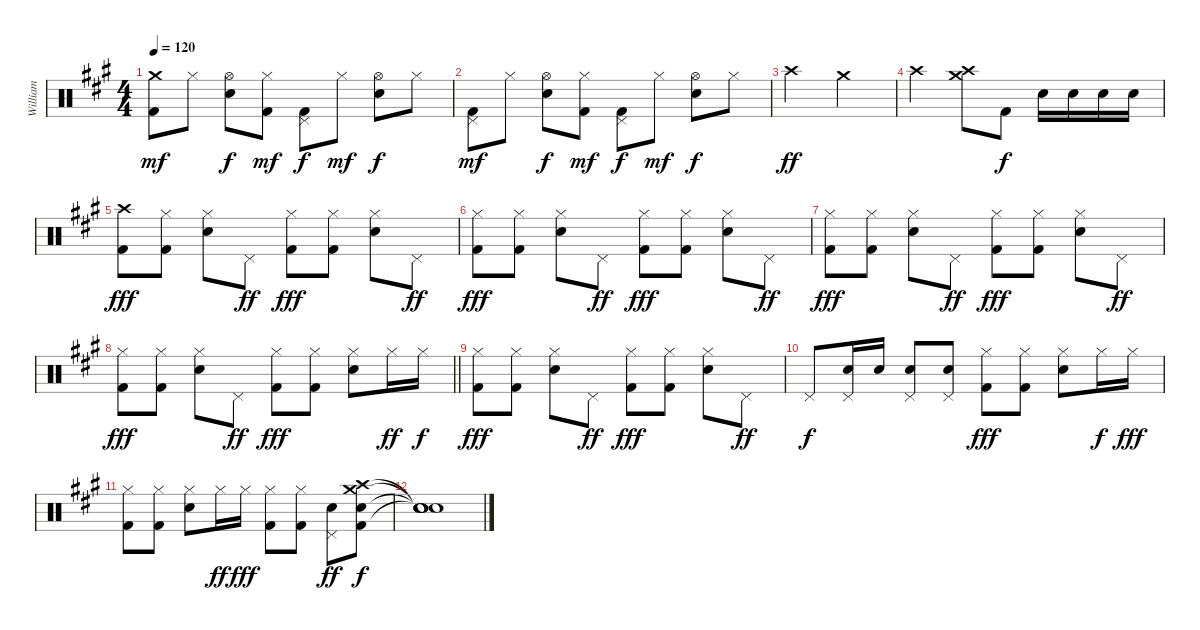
\track ("William" "William") {instrument percussion}
\staff {score}
\articulation defaults
\ts (4 4)
\tempo 120
\clef neutral
\ks a
("Crash medium (hit)" "Kick (hit) 2").8{dy mf} "Hi-Hat (closed)".8 ("Hi-Hat (open)" "Snare (hit) 2").8{dy f} ("Hi-Hat (closed)" "Kick (hit) 2").8{dy mf} ("Pedal Hi-Hat (hit)" "Kick (hit) 2").8{dy f} "Hi-Hat (closed)".8{dy mf} ("Hi-Hat (open)" "Snare (hit) 2").8{dy f} "Hi-Hat (closed)".8 |
("Pedal Hi-Hat (hit)" "Kick (hit) 2").8{dy mf} "Hi-Hat (closed)".8 ("Hi-Hat (open)" "Snare (hit) 2").8{dy f} ("Hi-Hat (closed)" "Kick (hit) 2").8{dy mf} ("Pedal Hi-Hat (hit)" "Kick (hit) 2").8{dy f} "Hi-Hat (closed)".8{dy mf} ("Hi-Hat (open)" "Snare (hit) 2").8{dy f} "Hi-Hat (closed)".8 |
"Crash high (hit)".2{dy ff} "Crash medium (hit)".2 |
"Crash high (hit)".2 ("Crash high (hit)" "Crash medium (hit)").8 "Kick (hit) 2".8{dy f} "Snare (hit) 2".16 "Snare (hit) 2".16 "Snare (hit) 2".16 "Snare (hit) 2".16 |
("Crash high (hit)" "Kick (hit) 2").8{dy fff} ("Hi-Hat (closed)" "Kick (hit) 2").8 ("Hi-Hat (closed)" "Snare (hit) 2").8 "Pedal Hi-Hat (hit)".8{dy ff} ("Hi-Hat (closed)" "Kick (hit) 2").8{dy fff} ("Hi-Hat (closed)" "Kick (hit) 2").8 ("Hi-Hat (closed)" "Snare (hit) 2").8 "Pedal Hi-Hat (hit)".8{dy ff} |
("Hi-Hat (closed)" "Kick (hit) 2").8{dy fff} ("Hi-Hat (closed)" "Kick (hit) 2").8 ("Hi-Hat (closed)" "Snare (hit) 2").8 "Pedal Hi-Hat (hit)".8{dy ff} ("Hi-Hat (closed)" "Kick (hit) 2").8{dy fff} ("Hi-Hat (closed)" "Kick (hit) 2").8 ("Hi-Hat (closed)" "Snare (hit) 2").8 "Pedal Hi-Hat (hit)".8{dy ff} |
("Hi-Hat (closed)" "Kick (hit) 2").8{dy fff} ("Hi-Hat (closed)" "Kick (hit) 2").8 ("Hi-Hat (closed)" "Snare (hit) 2").8 "Pedal Hi-Hat (hit)".8{dy ff} ("Hi-Hat (closed)" "Kick (hit) 2").8{dy fff} ("Hi-Hat (closed)" "Kick (hit) 2").8 ("Hi-Hat (closed)" "Snare (hit) 2").8 "Pedal Hi-Hat (hit)".8{dy ff} |
\barLineRight lightlight
("Hi-Hat (closed)" "Kick (hit) 2").8{dy fff} ("Hi-Hat (closed)" "Kick (hit) 2").8 ("Hi-Hat (closed)" "Snare (hit) 2").8 "Pedal Hi-Hat (hit)".8{dy ff} ("Hi-Hat (closed)" "Kick (hit) 2").8{dy fff} ("Hi-Hat (closed)" "Kick (hit) 2").8 ("Hi-Hat (closed)" "Snare (hit) 2").8 "Hi-Hat (closed)".16{dy ff} "Hi-Hat (closed)".16{dy f} |
("Hi-Hat (closed)" "Kick (hit) 2").8{dy fff} ("Hi-Hat (closed)" "Kick (hit) 2").8 ("Hi-Hat (closed)" "Snare (hit) 2").8 "Pedal Hi-Hat (hit)".8{dy ff} ("Hi-Hat (closed)" "Kick (hit) 2").8{dy fff} ("Hi-Hat (closed)" "Kick (hit) 2").8 ("Hi-Hat (closed)" "Snare (hit) 2").8 "Pedal Hi-Hat (hit)".8{dy ff} |
"Pedal Hi-Hat (hit)".8{dy f} ("Pedal Hi-Hat (hit)" "Snare (hit) 2").16 "Snare (hit) 2".16 ("Pedal Hi-Hat (hit)" "Snare (hit) 2").8 ("Pedal Hi-Hat (hit)" "Snare (hit) 2").8 ("Hi-Hat (closed)" "Kick (hit) 2").8{dy fff} ("Hi-Hat (closed)" "Kick (hit) 2").8 ("Hi-Hat (closed)" "Snare (hit) 2").8 "Hi-Hat (closed)".16{dy f} "Hi-Hat (closed)".16{dy fff} |
("Hi-Hat (closed)" "Kick (hit) 2").8 ("Hi-Hat (closed)" "Kick (hit) 2").8 ("Hi-Hat (closed)" "Snare (hit) 2").8 "Hi-Hat (closed)".16{dy ff} "Hi-Hat (closed)".16{dy fff} ("Hi-Hat (closed)" "Kick (hit) 2").8 ("Hi-Hat (closed)" "Kick (hit) 2").8 ("Pedal Hi-Hat (hit)" "Snare (hit) 2").8{dy ff} ("Crash medium (hit)" "Crash high (hit)" "Snare (hit) 2" "Kick (hit) 2").8{dy f} |
("Snare (hit)"{t} "Snare (hit)"{t} "Snare (hit)"{t} "Snare (hit)"{t}).1
